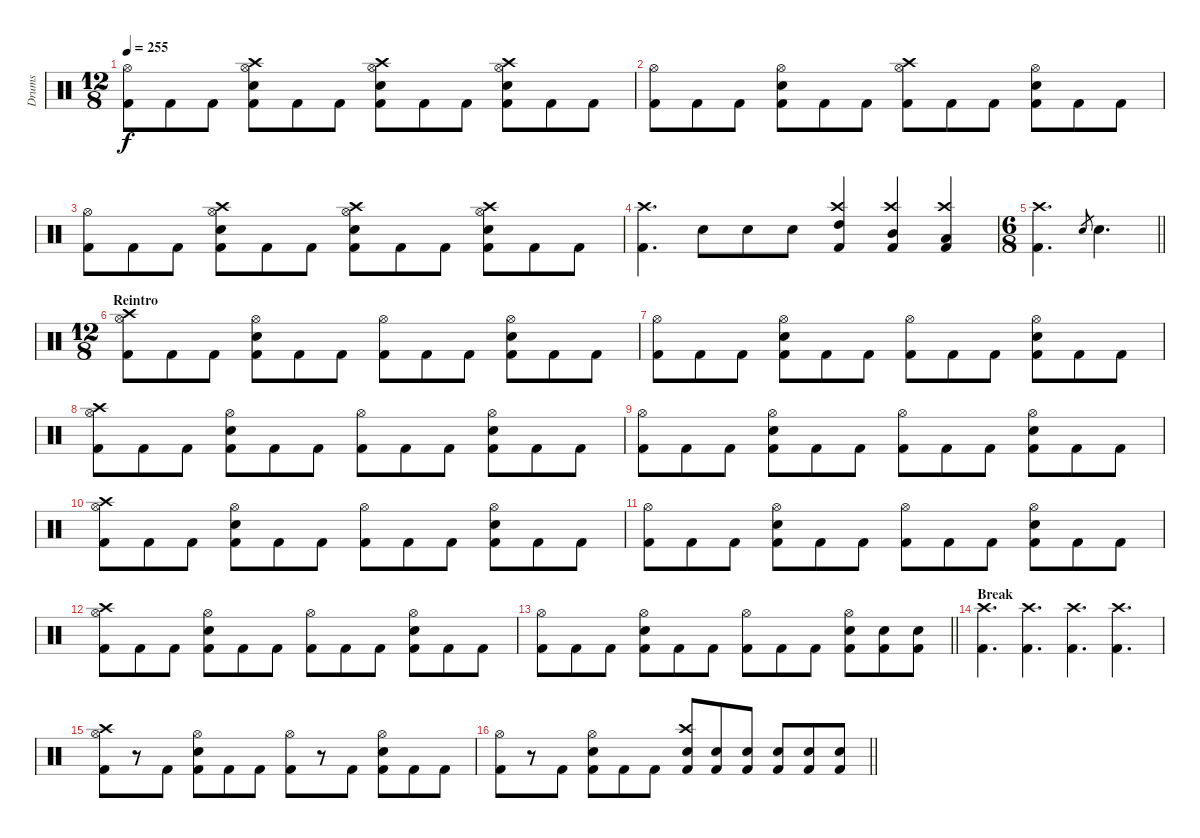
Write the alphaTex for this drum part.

\track ("Drums" "Drums") {instrument percussion}
\staff {score}
\articulation defaults
\ts (12 8)
\tempo 255
\clef neutral
\ks c
("Hi-Hat (open)" "Kick (hit) 2").8{dy f} "Kick (hit) 2".8 "Kick (hit) 2".8 ("Crash high (hit)" "Hi-Hat (open)" "Snare (hit) 2" "Kick (hit) 2").8 "Kick (hit) 2".8 "Kick (hit) 2".8 ("Crash high (hit)" "Hi-Hat (open)" "Snare (hit) 2" "Kick (hit) 2").8 "Kick (hit) 2".8 "Kick (hit) 2".8 ("Crash high (hit)" "Hi-Hat (open)" "Snare (hit) 2" "Kick (hit) 2").8 "Kick (hit) 2".8 "Kick (hit) 2".8 |
("Hi-Hat (open)" "Kick (hit) 2").8 "Kick (hit) 2".8 "Kick (hit) 2".8 ("Hi-Hat (open)" "Snare (hit) 2" "Kick (hit) 2").8 "Kick (hit) 2".8 "Kick (hit) 2".8 ("Crash high (hit)" "Hi-Hat (open)" "Kick (hit) 2").8 "Kick (hit) 2".8 "Kick (hit) 2".8 ("Hi-Hat (open)" "Snare (hit) 2" "Kick (hit) 2").8 "Kick (hit) 2".8 "Kick (hit) 2".8 |
("Hi-Hat (open)" "Kick (hit) 2").8 "Kick (hit) 2".8 "Kick (hit) 2".8 ("Crash high (hit)" "Hi-Hat (open)" "Snare (hit) 2" "Kick (hit) 2").8 "Kick (hit) 2".8 "Kick (hit) 2".8 ("Crash high (hit)" "Hi-Hat (open)" "Snare (hit) 2" "Kick (hit) 2").8 "Kick (hit) 2".8 "Kick (hit) 2".8 ("Crash high (hit)" "Hi-Hat (open)" "Snare (hit) 2" "Kick (hit) 2").8 "Kick (hit) 2".8 "Kick (hit) 2".8 |
("Crash high (hit)" "Kick (hit) 2").4{d} "Snare (hit) 2".8 "Snare (hit) 2".8 "Snare (hit) 2".8 ("Crash high (hit)" "High Tom (hit)" "Kick (hit) 2").4 ("Crash high (hit)" "Mid Tom (hit)" "Kick (hit) 2").4 ("Crash high (hit)" "Low Tom (hit)" "Kick (hit) 2").4 |
\ts (6 8)
\barLineRight lightlight
("Crash high (hit)" "Kick (hit) 2").4{d} "Snare (hit) 2".8{gr} "Snare (hit) 2".4{d} |
\ts (12 8)
\section ("" "Reintro")
("Crash high (hit)" "Hi-Hat (open)" "Kick (hit) 2").8 "Kick (hit) 2".8 "Kick (hit) 2".8 ("Hi-Hat (open)" "Snare (hit) 2" "Kick (hit) 2").8 "Kick (hit) 2".8 "Kick (hit) 2".8 ("Hi-Hat (open)" "Kick (hit) 2").8 "Kick (hit) 2".8 "Kick (hit) 2".8 ("Hi-Hat (open)" "Snare (hit) 2" "Kick (hit) 2").8 "Kick (hit) 2".8 "Kick (hit) 2".8 |
("Hi-Hat (open)" "Kick (hit) 2").8 "Kick (hit) 2".8 "Kick (hit) 2".8 ("Hi-Hat (open)" "Snare (hit) 2" "Kick (hit) 2").8 "Kick (hit) 2".8 "Kick (hit) 2".8 ("Hi-Hat (open)" "Kick (hit) 2").8 "Kick (hit) 2".8 "Kick (hit) 2".8 ("Hi-Hat (open)" "Snare (hit) 2" "Kick (hit) 2").8 "Kick (hit) 2".8 "Kick (hit) 2".8 |
("Crash high (hit)" "Hi-Hat (open)" "Kick (hit) 2").8 "Kick (hit) 2".8 "Kick (hit) 2".8 ("Hi-Hat (open)" "Snare (hit) 2" "Kick (hit) 2").8 "Kick (hit) 2".8 "Kick (hit) 2".8 ("Hi-Hat (open)" "Kick (hit) 2").8 "Kick (hit) 2".8 "Kick (hit) 2".8 ("Hi-Hat (open)" "Snare (hit) 2" "Kick (hit) 2").8 "Kick (hit) 2".8 "Kick (hit) 2".8 |
("Hi-Hat (open)" "Kick (hit) 2").8 "Kick (hit) 2".8 "Kick (hit) 2".8 ("Hi-Hat (open)" "Snare (hit) 2" "Kick (hit) 2").8 "Kick (hit) 2".8 "Kick (hit) 2".8 ("Hi-Hat (open)" "Kick (hit) 2").8 "Kick (hit) 2".8 "Kick (hit) 2".8 ("Hi-Hat (open)" "Snare (hit) 2" "Kick (hit) 2").8 "Kick (hit) 2".8 "Kick (hit) 2".8 |
("Crash high (hit)" "Hi-Hat (open)" "Kick (hit) 2").8 "Kick (hit) 2".8 "Kick (hit) 2".8 ("Hi-Hat (open)" "Snare (hit) 2" "Kick (hit) 2").8 "Kick (hit) 2".8 "Kick (hit) 2".8 ("Hi-Hat (open)" "Kick (hit) 2").8 "Kick (hit) 2".8 "Kick (hit) 2".8 ("Hi-Hat (open)" "Snare (hit) 2" "Kick (hit) 2").8 "Kick (hit) 2".8 "Kick (hit) 2".8 |
("Hi-Hat (open)" "Kick (hit) 2").8 "Kick (hit) 2".8 "Kick (hit) 2".8 ("Hi-Hat (open)" "Snare (hit) 2" "Kick (hit) 2").8 "Kick (hit) 2".8 "Kick (hit) 2".8 ("Hi-Hat (open)" "Kick (hit) 2").8 "Kick (hit) 2".8 "Kick (hit) 2".8 ("Hi-Hat (open)" "Snare (hit) 2" "Kick (hit) 2").8 "Kick (hit) 2".8 "Kick (hit) 2".8 |
("Crash high (hit)" "Hi-Hat (open)" "Kick (hit) 2").8 "Kick (hit) 2".8 "Kick (hit) 2".8 ("Hi-Hat (open)" "Snare (hit) 2" "Kick (hit) 2").8 "Kick (hit) 2".8 "Kick (hit) 2".8 ("Hi-Hat (open)" "Kick (hit) 2").8 "Kick (hit) 2".8 "Kick (hit) 2".8 ("Hi-Hat (open)" "Snare (hit) 2" "Kick (hit) 2").8 "Kick (hit) 2".8 "Kick (hit) 2".8 |
\barLineRight lightlight
("Hi-Hat (open)" "Kick (hit) 2").8 "Kick (hit) 2".8 "Kick (hit) 2".8 ("Hi-Hat (open)" "Snare (hit) 2" "Kick (hit) 2").8 "Kick (hit) 2".8 "Kick (hit) 2".8 ("Hi-Hat (open)" "Kick (hit) 2").8 "Kick (hit) 2".8 "Kick (hit) 2".8 ("Hi-Hat (open)" "Snare (hit) 2" "Kick (hit) 2").8 ("Snare (hit) 2" "Kick (hit) 2").8 ("Snare (hit) 2" "Kick (hit) 2").8 |
\section ("" "Break")
("Crash high (hit)" "Kick (hit) 2").4{d} ("Crash high (hit)" "Kick (hit) 2").4{d} ("Crash high (hit)" "Kick (hit) 2").4{d} ("Crash high (hit)" "Kick (hit) 2").4{d} |
("Crash high (hit)" "Hi-Hat (open)" "Kick (hit) 2").8 r.8 "Kick (hit) 2".8 ("Hi-Hat (open)" "Snare (hit) 2" "Kick (hit) 2").8 "Kick (hit) 2".8 "Kick (hit) 2".8 ("Hi-Hat (open)" "Kick (hit) 2").8 r.8 "Kick (hit) 2".8 ("Hi-Hat (open)" "Snare (hit) 2" "Kick (hit) 2").8 "Kick (hit) 2".8 "Kick (hit) 2".8 |
\barLineRight lightlight
("Hi-Hat (open)" "Kick (hit) 2").8 r.8 "Kick (hit) 2".8 ("Hi-Hat (open)" "Snare (hit) 2" "Kick (hit) 2").8 "Kick (hit) 2".8 "Kick (hit) 2".8 ("Crash high (hit)" "Snare (hit) 2" "Kick (hit) 2").8 ("Snare (hit) 2" "Kick (hit) 2").8 ("Snare (hit) 2" "Kick (hit) 2").8 ("Snare (hit) 2" "Kick (hit) 2").8 ("Snare (hit) 2" "Kick (hit) 2").8 ("Snare (hit) 2" "Kick (hit) 2").8
